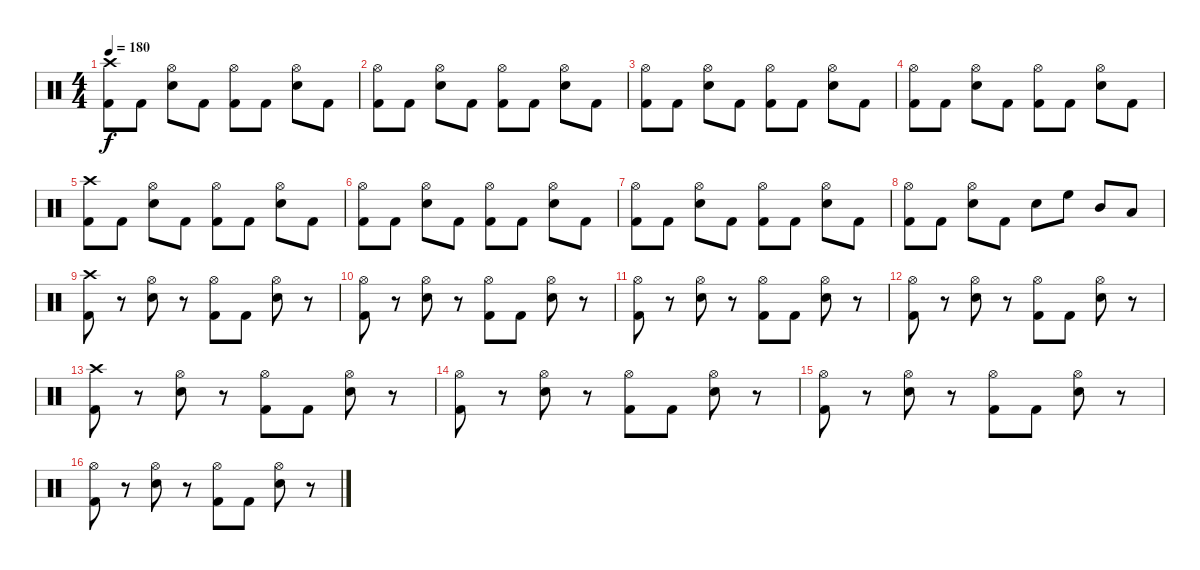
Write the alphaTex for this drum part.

\track "" {instrument percussion}
\staff {score}
\articulation defaults
\ts (4 4)
\tempo 180
\clef neutral
\ks c
("Crash high (hit)" "Kick (hit) 2").8{dy f} "Kick (hit) 2".8 ("Hi-Hat (open)" "Electric Snare (hit)").8 "Kick (hit) 2".8 ("Hi-Hat (open)" "Kick (hit) 2").8 "Kick (hit) 2".8 ("Hi-Hat (open)" "Electric Snare (hit)").8 "Kick (hit) 2".8 |
("Hi-Hat (open)" "Kick (hit) 2").8 "Kick (hit) 2".8 ("Hi-Hat (open)" "Electric Snare (hit)").8 "Kick (hit) 2".8 ("Hi-Hat (open)" "Kick (hit) 2").8 "Kick (hit) 2".8 ("Hi-Hat (open)" "Electric Snare (hit)").8 "Kick (hit) 2".8 |
("Hi-Hat (open)" "Kick (hit) 2").8 "Kick (hit) 2".8 ("Hi-Hat (open)" "Electric Snare (hit)").8 "Kick (hit) 2".8 ("Hi-Hat (open)" "Kick (hit) 2").8 "Kick (hit) 2".8 ("Hi-Hat (open)" "Electric Snare (hit)").8 "Kick (hit) 2".8 |
("Hi-Hat (open)" "Kick (hit) 2").8 "Kick (hit) 2".8 ("Hi-Hat (open)" "Electric Snare (hit)").8 "Kick (hit) 2".8 ("Hi-Hat (open)" "Kick (hit) 2").8 "Kick (hit) 2".8 ("Hi-Hat (open)" "Electric Snare (hit)").8 "Kick (hit) 2".8 |
("Crash high (hit)" "Kick (hit) 2").8 "Kick (hit) 2".8 ("Hi-Hat (open)" "Electric Snare (hit)").8 "Kick (hit) 2".8 ("Hi-Hat (open)" "Kick (hit) 2").8 "Kick (hit) 2".8 ("Hi-Hat (open)" "Electric Snare (hit)").8 "Kick (hit) 2".8 |
("Hi-Hat (open)" "Kick (hit) 2").8 "Kick (hit) 2".8 ("Hi-Hat (open)" "Electric Snare (hit)").8 "Kick (hit) 2".8 ("Hi-Hat (open)" "Kick (hit) 2").8 "Kick (hit) 2".8 ("Hi-Hat (open)" "Electric Snare (hit)").8 "Kick (hit) 2".8 |
("Hi-Hat (open)" "Kick (hit) 2").8 "Kick (hit) 2".8 ("Hi-Hat (open)" "Electric Snare (hit)").8 "Kick (hit) 2".8 ("Hi-Hat (open)" "Kick (hit) 2").8 "Kick (hit) 2".8 ("Hi-Hat (open)" "Electric Snare (hit)").8 "Kick (hit) 2".8 |
("Hi-Hat (open)" "Kick (hit) 2").8 "Kick (hit) 2".8 ("Hi-Hat (open)" "Electric Snare (hit)").8 "Kick (hit) 2".8 "Electric Snare (hit)".8 "High Floor Tom (hit)".8 "Mid Tom (hit)".8 "Low Tom (hit)".8 |
("Crash high (hit)" "Kick (hit) 2").8 r.8 ("Hi-Hat (open)" "Electric Snare (hit)").8 r.8 ("Hi-Hat (open)" "Kick (hit) 2").8 "Kick (hit) 2".8 ("Hi-Hat (open)" "Electric Snare (hit)").8 r.8 |
("Hi-Hat (open)" "Kick (hit) 2").8 r.8 ("Hi-Hat (open)" "Electric Snare (hit)").8 r.8 ("Hi-Hat (open)" "Kick (hit) 2").8 "Kick (hit) 2".8 ("Hi-Hat (open)" "Electric Snare (hit)").8 r.8 |
("Hi-Hat (open)" "Kick (hit) 2").8 r.8 ("Hi-Hat (open)" "Electric Snare (hit)").8 r.8 ("Hi-Hat (open)" "Kick (hit) 2").8 "Kick (hit) 2".8 ("Hi-Hat (open)" "Electric Snare (hit)").8 r.8 |
("Hi-Hat (open)" "Kick (hit) 2").8 r.8 ("Hi-Hat (open)" "Electric Snare (hit)").8 r.8 ("Hi-Hat (open)" "Kick (hit) 2").8 "Kick (hit) 2".8 ("Hi-Hat (open)" "Electric Snare (hit)").8 r.8 |
("Crash high (hit)" "Kick (hit) 2").8 r.8 ("Hi-Hat (open)" "Electric Snare (hit)").8 r.8 ("Hi-Hat (open)" "Kick (hit) 2").8 "Kick (hit) 2".8 ("Hi-Hat (open)" "Electric Snare (hit)").8 r.8 |
("Hi-Hat (open)" "Kick (hit) 2").8 r.8 ("Hi-Hat (open)" "Electric Snare (hit)").8 r.8 ("Hi-Hat (open)" "Kick (hit) 2").8 "Kick (hit) 2".8 ("Hi-Hat (open)" "Electric Snare (hit)").8 r.8 |
("Hi-Hat (open)" "Kick (hit) 2").8 r.8 ("Hi-Hat (open)" "Electric Snare (hit)").8 r.8 ("Hi-Hat (open)" "Kick (hit) 2").8 "Kick (hit) 2".8 ("Hi-Hat (open)" "Electric Snare (hit)").8 r.8 |
("Hi-Hat (open)" "Kick (hit) 2").8 r.8 ("Hi-Hat (open)" "Electric Snare (hit)").8 r.8 ("Hi-Hat (open)" "Kick (hit) 2").8 "Kick (hit) 2".8 ("Hi-Hat (open)" "Electric Snare (hit)").8 r.8
